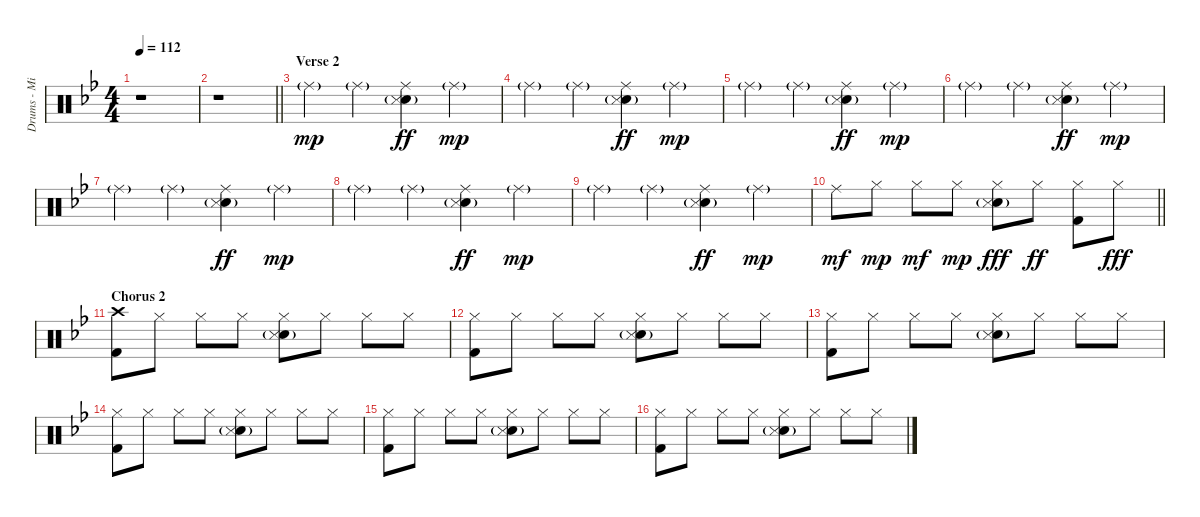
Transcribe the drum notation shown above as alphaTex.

\track ("Drums - Mikko" "Drums - Mi") {instrument percussion}
\staff {score}
\articulation defaults
\ts (4 4)
\tempo 112
\clef neutral
\ks bb
r.1{dy mp} |
\barLineRight lightlight
r.1 |
\section ("" "Verse 2")
"Ride (middle)"{g}.4 "Ride (middle)"{g}.4 ("Ride (middle)" "Snare (hit) 2"{g} "Snare (side stick) 3"{g}).4{dy ff} "Ride (middle)"{g}.4{dy mp} |
"Ride (middle)"{g}.4 "Ride (middle)"{g}.4 ("Ride (middle)" "Snare (hit) 2"{g} "Snare (side stick) 3"{g}).4{dy ff} "Ride (middle)"{g}.4{dy mp} |
"Ride (middle)"{g}.4 "Ride (middle)"{g}.4 ("Ride (middle)" "Snare (hit) 2"{g} "Snare (side stick) 3"{g}).4{dy ff} "Ride (middle)"{g}.4{dy mp} |
"Ride (middle)"{g}.4 "Ride (middle)"{g}.4 ("Ride (middle)" "Snare (hit) 2"{g} "Snare (side stick) 3"{g}).4{dy ff} "Ride (middle)"{g}.4{dy mp} |
"Ride (middle)"{g}.4 "Ride (middle)"{g}.4 ("Ride (middle)" "Snare (hit) 2"{g} "Snare (side stick) 3"{g}).4{dy ff} "Ride (middle)"{g}.4{dy mp} |
"Ride (middle)"{g}.4 "Ride (middle)"{g}.4 ("Ride (middle)" "Snare (hit) 2"{g} "Snare (side stick) 3"{g}).4{dy ff} "Ride (middle)"{g}.4{dy mp} |
"Ride (middle)"{g}.4 "Ride (middle)"{g}.4 ("Ride (middle)" "Snare (hit) 2"{g} "Snare (side stick) 3"{g}).4{dy ff} "Ride (middle)"{g}.4{dy mp} |
\barLineRight lightlight "Ride (middle)".8{dy mf} "Hi-Hat (closed)".8{dy mp} "Hi-Hat (closed)".8{dy mf} "Hi-Hat (closed)".8{dy mp}
("Hi-Hat (closed)" "Snare (hit) 2"{g} "Snare (side stick) 3").8{dy fff} "Hi-Hat (closed)".8{dy ff} ("Hi-Hat (closed)" "Kick (hit) 2").8 "Hi-Hat (closed)".8{dy fff} |
\section ("" "Chorus 2")
("Crash high (hit)" "Kick (hit) 2").8 "Hi-Hat (closed)".8 "Hi-Hat (closed)".8 "Hi-Hat (closed)".8 ("Hi-Hat (closed)" "Snare (hit) 2"{g} "Snare (side stick) 3").8 "Hi-Hat (closed)".8 "Hi-Hat (closed)".8 "Hi-Hat (closed)".8 |
("Hi-Hat (closed)" "Kick (hit) 2").8 "Hi-Hat (closed)".8 "Hi-Hat (closed)".8 "Hi-Hat (closed)".8 ("Hi-Hat (closed)" "Snare (hit) 2"{g} "Snare (side stick) 3").8 "Hi-Hat (closed)".8 "Hi-Hat (closed)".8 "Hi-Hat (closed)".8 |
("Hi-Hat (closed)" "Kick (hit) 2").8 "Hi-Hat (closed)".8 "Hi-Hat (closed)".8 "Hi-Hat (closed)".8 ("Hi-Hat (closed)" "Snare (hit) 2"{g} "Snare (side stick) 3").8 "Hi-Hat (closed)".8 "Hi-Hat (closed)".8 "Hi-Hat (closed)".8 |
("Hi-Hat (closed)" "Kick (hit) 2").8 "Hi-Hat (closed)".8 "Hi-Hat (closed)".8 "Hi-Hat (closed)".8 ("Hi-Hat (closed)" "Snare (hit) 2"{g} "Snare (side stick) 3").8 "Hi-Hat (closed)".8 "Hi-Hat (closed)".8 "Hi-Hat (closed)".8 |
("Hi-Hat (closed)" "Kick (hit) 2").8 "Hi-Hat (closed)".8 "Hi-Hat (closed)".8 "Hi-Hat (closed)".8 ("Hi-Hat (closed)" "Snare (hit) 2"{g} "Snare (side stick) 3").8 "Hi-Hat (closed)".8 "Hi-Hat (closed)".8 "Hi-Hat (closed)".8 |
("Hi-Hat (closed)" "Kick (hit) 2").8 "Hi-Hat (closed)".8 "Hi-Hat (closed)".8 "Hi-Hat (closed)".8 ("Hi-Hat (closed)" "Snare (hit) 2"{g} "Snare (side stick) 3").8 "Hi-Hat (closed)".8 "Hi-Hat (closed)".8 "Hi-Hat (closed)".8
